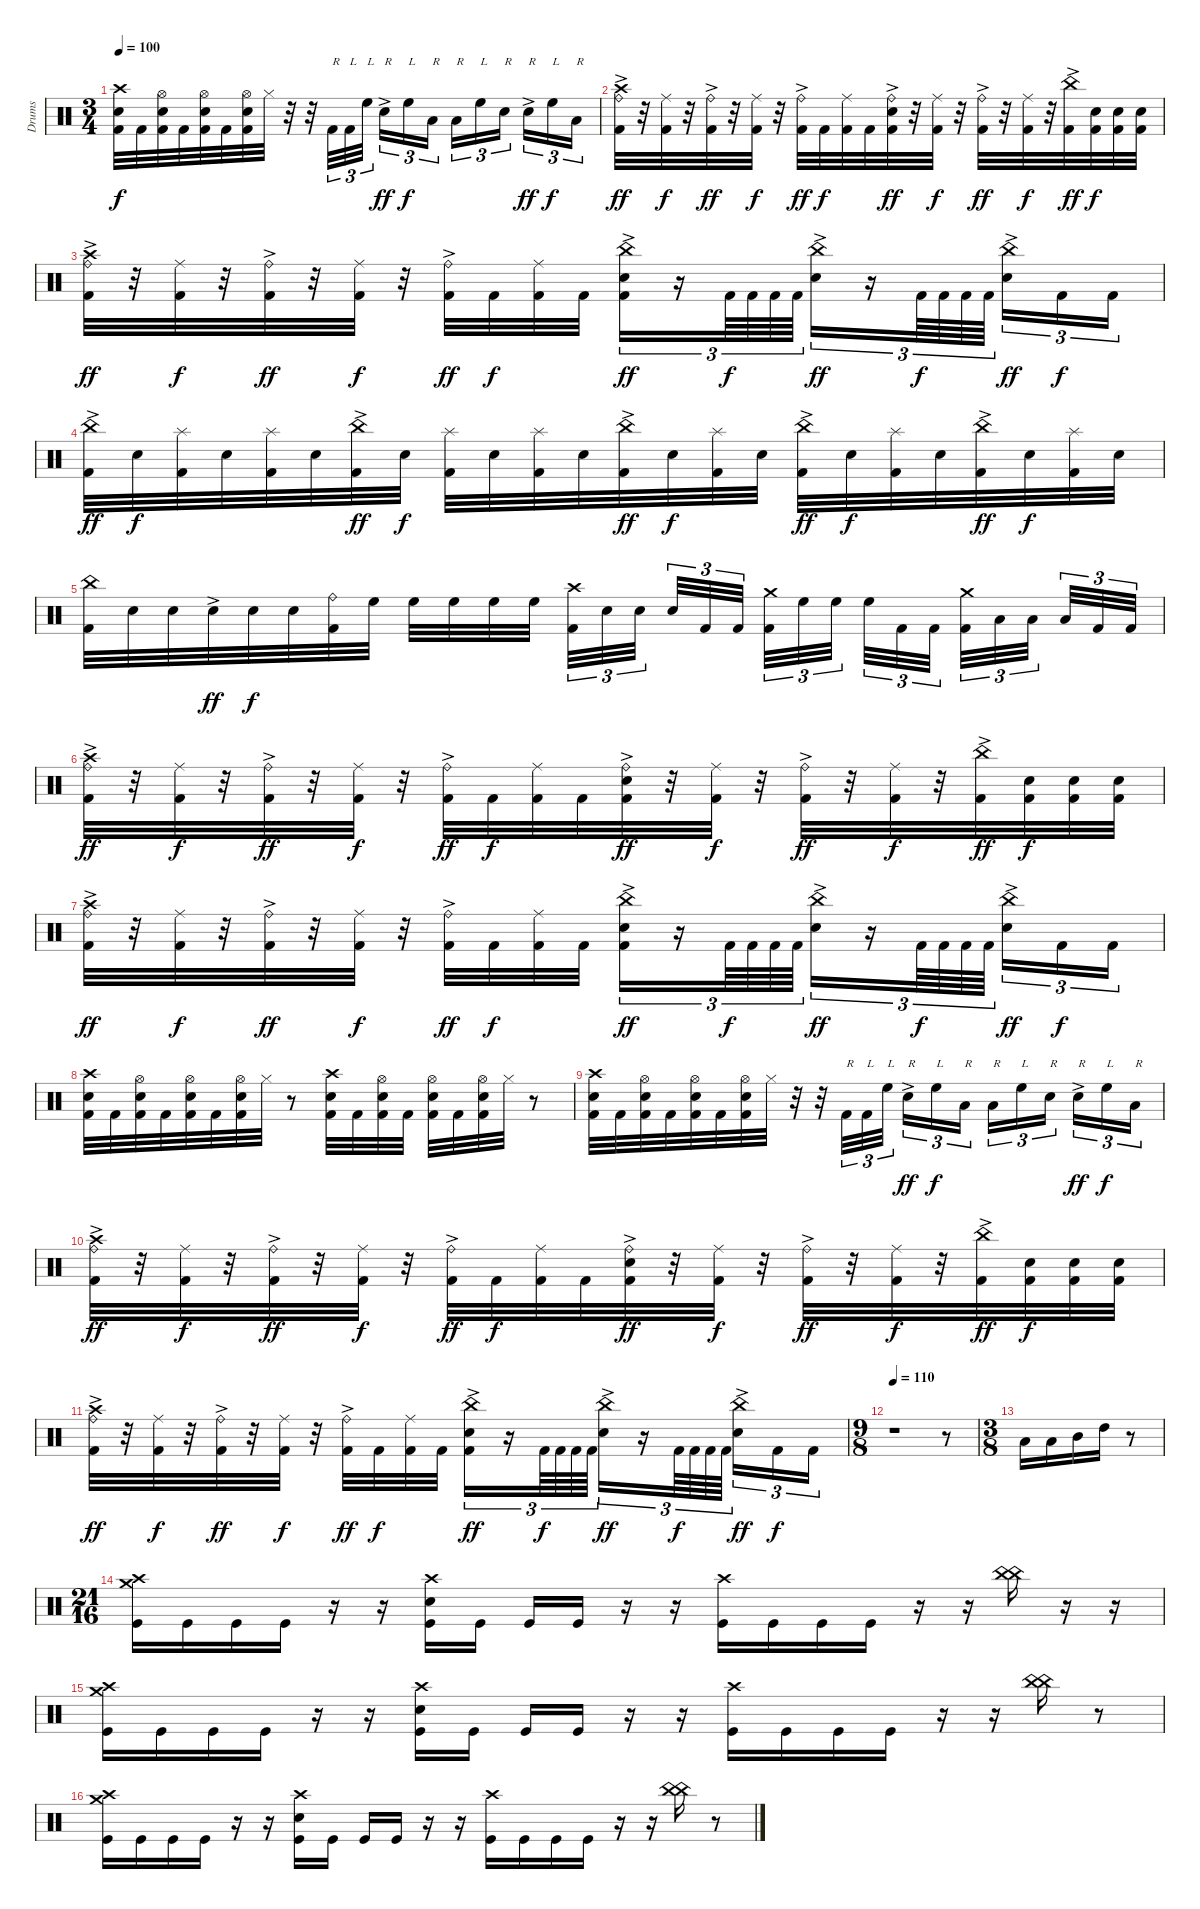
\track ("Drums" "Drums") {instrument percussion}
\staff {score}
\articulation defaults
\ts (3 4)
\tempo 100
\clef neutral
\ks c
("Crash high (hit)" "Electric Snare (hit)" "Kick (hit) 2").32{dy f} "Kick (hit) 2".32 ("Kick (hit) 2" "Electric Snare (hit)" "Hi-Hat (open)").32 "Kick (hit) 2".32 ("Hi-Hat (open)" "Electric Snare (hit)" "Kick (hit) 2").32 "Kick (hit) 2".32 ("Hi-Hat (open)" "Electric Snare (hit)" "Kick (hit) 2").32 "Hi-Hat (closed)".32 r.32 r.32 "Kick (hit) 2".32{tu (3 2) txt "R"} "Kick (hit) 2".32{tu (3 2) txt "L"} "High Floor Tom (hit)".32{tu (3 2) txt "L" beam splitsecondary} "Electric Snare (hit)"{ac}.16{tu (3 2) txt "R" dy ff} "High Floor Tom (hit)".16{tu (3 2) txt "L" dy f} "Low Tom (hit)".16{tu (3 2) txt "R"} "Low Tom (hit)".16{tu (3 2) txt "R"} "High Floor Tom (hit)".16{tu (3 2) txt "L"} "Electric Snare (hit)".16{tu (3 2) txt "R" beam splitsecondary} "Electric Snare (hit)"{ac}.16{tu (3 2) txt "R" dy ff} "High Floor Tom (hit)".16{tu (3 2) txt "L" dy f} "Low Tom (hit)".16{tu (3 2) txt "R"} |
("Ride (bell)"{ac} "Kick (hit) 2" "Crash high (hit)").32{dy ff} r.32 ("Ride (middle)" "Kick (hit) 2").32{dy f} r.32 ("Ride (bell)"{ac} "Kick (hit) 2").32{dy ff} r.32 ("Ride (middle)" "Kick (hit) 2").32{dy f} r.32 ("Ride (bell)"{ac} "Kick (hit) 2").32{dy ff} "Kick (hit) 2".32{dy f} ("Ride (middle)" "Kick (hit) 2").32 "Kick (hit) 2".32 ("Ride (bell)"{ac} "Kick (hit) 2" "Electric Snare (hit)").32{dy ff} r.32 ("Ride (middle)" "Kick (hit) 2").32{dy f} r.32 ("Ride (bell)"{ac} "Kick (hit) 2").32{dy ff} r.32 ("Ride (middle)" "Kick (hit) 2").32{dy f} r.32 ("China (hit)"{ac} "Kick (hit) 2").32{dy ff} ("Kick (hit) 2" "Electric Snare (hit)").32{dy f} ("Kick (hit) 2" "Electric Snare (hit)").32 ("Kick (hit) 2" "Electric Snare (hit)").32 |
("Ride (bell)"{ac} "Kick (hit) 2" "Crash high (hit)").32{dy ff} r.32 ("Ride (middle)" "Kick (hit) 2").32{dy f} r.32 ("Ride (bell)"{ac} "Kick (hit) 2").32{dy ff} r.32 ("Ride (middle)" "Kick (hit) 2").32{dy f} r.32 ("Ride (bell)"{ac} "Kick (hit) 2").32{dy ff} "Kick (hit) 2".32{dy f} ("Ride (middle)" "Kick (hit) 2").32 "Kick (hit) 2".32{beam splitsecondary} ("China (hit)" "Kick (hit) 2" "Electric Snare (hit)"{ac}).16{tu (3 2) dy ff} r.16{tu (3 2)} "Kick (hit) 2".64{tu (3 2) dy f} "Kick (hit) 2".64{tu (3 2)} "Kick (hit) 2".64{tu (3 2)} "Kick (hit) 2".64{tu (3 2)} ("China (hit)" "Electric Snare (hit)"{ac}).16{tu (3 2) dy ff} r.16{tu (3 2)} "Kick (hit) 2".64{tu (3 2) dy f} "Kick (hit) 2".64{tu (3 2)} "Kick (hit) 2".64{tu (3 2)} "Kick (hit) 2".64{tu (3 2) beam splitsecondary} ("China (hit)" "Electric Snare (hit)"{ac}).16{tu (3 2) dy ff} "Kick (hit) 2".16{tu (3 2) dy f} "Kick (hit) 2".16{tu (3 2)} |
("China (hit)"{ac} "Kick (hit) 2").32{dy ff} "Electric Snare (hit)".32{dy f} ("Splash (hit)" "Kick (hit) 2").32 "Electric Snare (hit)".32 ("Splash (hit)" "Kick (hit) 2").32 "Electric Snare (hit)".32 ("China (hit)"{ac} "Kick (hit) 2").32{dy ff} "Electric Snare (hit)".32{dy f} ("Splash (hit)" "Kick (hit) 2").32 "Electric Snare (hit)".32 ("Splash (hit)" "Kick (hit) 2").32 "Electric Snare (hit)".32 ("China (hit)"{ac} "Kick (hit) 2").32{dy ff} "Electric Snare (hit)".32{dy f} ("Splash (hit)" "Kick (hit) 2").32 "Electric Snare (hit)".32 ("China (hit)"{ac} "Kick (hit) 2").32{dy ff} "Electric Snare (hit)".32{dy f} ("Splash (hit)" "Kick (hit) 2").32 "Electric Snare (hit)".32 ("China (hit)"{ac} "Kick (hit) 2").32{dy ff} "Electric Snare (hit)".32{dy f} ("Splash (hit)" "Kick (hit) 2").32 "Electric Snare (hit)".32 |
("China (hit)" "Kick (hit) 2").32 "Electric Snare (hit)".32 "Electric Snare (hit)".32 "Electric Snare (hit)"{ac}.32{dy ff} "Electric Snare (hit)".32{dy f} "Electric Snare (hit)".32 ("Ride (bell)" "Kick (hit) 2").32 "High Floor Tom (hit)".32 "High Floor Tom (hit)".32 "High Floor Tom (hit)".32 "High Floor Tom (hit)".32 "High Floor Tom (hit)".32{beam splitsecondary} ("Crash high (hit)" "Kick (hit) 2").32{tu (3 2)} "Electric Snare (hit)".32{tu (3 2)} "Electric Snare (hit)".32{tu (3 2) beam splitsecondary} "Electric Snare (hit)".32{tu (3 2)} "Kick (hit) 2".32{tu (3 2)} "Kick (hit) 2".32{tu (3 2)} ("Crash medium (hit)" "Kick (hit) 2").32{tu (3 2)} "High Floor Tom (hit)".32{tu (3 2)} "High Floor Tom (hit)".32{tu (3 2) beam splitsecondary} "High Floor Tom (hit)".32{tu (3 2)} "Kick (hit) 2".32{tu (3 2)} "Kick (hit) 2".32{tu (3 2) beam splitsecondary} ("Crash medium (hit)" "Kick (hit) 2").32{tu (3 2)} "Low Tom (hit)".32{tu (3 2)} "Low Tom (hit)".32{tu (3 2) beam splitsecondary} "Low Tom (hit)".32{tu (3 2)} "Kick (hit) 2".32{tu (3 2)} "Kick (hit) 2".32{tu (3 2)} |
("Ride (bell)"{ac} "Kick (hit) 2" "Crash high (hit)").32{dy ff} r.32 ("Ride (middle)" "Kick (hit) 2").32{dy f} r.32 ("Ride (bell)"{ac} "Kick (hit) 2").32{dy ff} r.32 ("Ride (middle)" "Kick (hit) 2").32{dy f} r.32 ("Ride (bell)"{ac} "Kick (hit) 2").32{dy ff} "Kick (hit) 2".32{dy f} ("Ride (middle)" "Kick (hit) 2").32 "Kick (hit) 2".32 ("Ride (bell)"{ac} "Kick (hit) 2" "Electric Snare (hit)").32{dy ff} r.32 ("Ride (middle)" "Kick (hit) 2").32{dy f} r.32 ("Ride (bell)"{ac} "Kick (hit) 2").32{dy ff} r.32 ("Ride (middle)" "Kick (hit) 2").32{dy f} r.32 ("China (hit)"{ac} "Kick (hit) 2").32{dy ff} ("Kick (hit) 2" "Electric Snare (hit)").32{dy f} ("Kick (hit) 2" "Electric Snare (hit)").32 ("Kick (hit) 2" "Electric Snare (hit)").32 |
("Ride (bell)"{ac} "Kick (hit) 2" "Crash high (hit)").32{dy ff} r.32 ("Ride (middle)" "Kick (hit) 2").32{dy f} r.32 ("Ride (bell)"{ac} "Kick (hit) 2").32{dy ff} r.32 ("Ride (middle)" "Kick (hit) 2").32{dy f} r.32 ("Ride (bell)"{ac} "Kick (hit) 2").32{dy ff} "Kick (hit) 2".32{dy f} ("Ride (middle)" "Kick (hit) 2").32 "Kick (hit) 2".32{beam splitsecondary} ("China (hit)" "Kick (hit) 2" "Electric Snare (hit)"{ac}).16{tu (3 2) dy ff} r.16{tu (3 2)} "Kick (hit) 2".64{tu (3 2) dy f} "Kick (hit) 2".64{tu (3 2)} "Kick (hit) 2".64{tu (3 2)} "Kick (hit) 2".64{tu (3 2)} ("China (hit)" "Electric Snare (hit)"{ac}).16{tu (3 2) dy ff} r.16{tu (3 2)} "Kick (hit) 2".64{tu (3 2) dy f} "Kick (hit) 2".64{tu (3 2)} "Kick (hit) 2".64{tu (3 2)} "Kick (hit) 2".64{tu (3 2) beam splitsecondary} ("China (hit)" "Electric Snare (hit)"{ac}).16{tu (3 2) dy ff} "Kick (hit) 2".16{tu (3 2) dy f} "Kick (hit) 2".16{tu (3 2)} |
("Crash high (hit)" "Electric Snare (hit)" "Kick (hit) 2").32 "Kick (hit) 2".32 ("Kick (hit) 2" "Electric Snare (hit)" "Hi-Hat (open)").32 "Kick (hit) 2".32 ("Hi-Hat (open)" "Electric Snare (hit)" "Kick (hit) 2").32 "Kick (hit) 2".32 ("Hi-Hat (open)" "Electric Snare (hit)" "Kick (hit) 2").32 "Hi-Hat (closed)".32 r.8 ("Crash high (hit)" "Electric Snare (hit)" "Kick (hit) 2").32 "Kick (hit) 2".32 ("Kick (hit) 2" "Electric Snare (hit)" "Hi-Hat (open)").32 "Kick (hit) 2".32 ("Hi-Hat (open)" "Electric Snare (hit)" "Kick (hit) 2").32 "Kick (hit) 2".32 ("Hi-Hat (open)" "Electric Snare (hit)" "Kick (hit) 2").32 "Hi-Hat (closed)".32 r.8 |
("Crash high (hit)" "Electric Snare (hit)" "Kick (hit) 2").32 "Kick (hit) 2".32 ("Kick (hit) 2" "Electric Snare (hit)" "Hi-Hat (open)").32 "Kick (hit) 2".32 ("Hi-Hat (open)" "Electric Snare (hit)" "Kick (hit) 2").32 "Kick (hit) 2".32 ("Hi-Hat (open)" "Electric Snare (hit)" "Kick (hit) 2").32 "Hi-Hat (closed)".32 r.32 r.32 "Kick (hit) 2".32{tu (3 2) txt "R"} "Kick (hit) 2".32{tu (3 2) txt "L"} "High Floor Tom (hit)".32{tu (3 2) txt "L" beam splitsecondary} "Electric Snare (hit)"{ac}.16{tu (3 2) txt "R" dy ff} "High Floor Tom (hit)".16{tu (3 2) txt "L" dy f} "Low Tom (hit)".16{tu (3 2) txt "R"} "Low Tom (hit)".16{tu (3 2) txt "R"} "High Floor Tom (hit)".16{tu (3 2) txt "L"} "Electric Snare (hit)".16{tu (3 2) txt "R" beam splitsecondary} "Electric Snare (hit)"{ac}.16{tu (3 2) txt "R" dy ff} "High Floor Tom (hit)".16{tu (3 2) txt "L" dy f} "Low Tom (hit)".16{tu (3 2) txt "R"} |
("Ride (bell)"{ac} "Kick (hit) 2" "Crash high (hit)").32{dy ff} r.32 ("Ride (middle)" "Kick (hit) 2").32{dy f} r.32 ("Ride (bell)"{ac} "Kick (hit) 2").32{dy ff} r.32 ("Ride (middle)" "Kick (hit) 2").32{dy f} r.32 ("Ride (bell)"{ac} "Kick (hit) 2").32{dy ff} "Kick (hit) 2".32{dy f} ("Ride (middle)" "Kick (hit) 2").32 "Kick (hit) 2".32 ("Ride (bell)"{ac} "Kick (hit) 2" "Electric Snare (hit)").32{dy ff} r.32 ("Ride (middle)" "Kick (hit) 2").32{dy f} r.32 ("Ride (bell)"{ac} "Kick (hit) 2").32{dy ff} r.32 ("Ride (middle)" "Kick (hit) 2").32{dy f} r.32 ("China (hit)"{ac} "Kick (hit) 2").32{dy ff} ("Kick (hit) 2" "Electric Snare (hit)").32{dy f} ("Kick (hit) 2" "Electric Snare (hit)").32 ("Kick (hit) 2" "Electric Snare (hit)").32 |
("Ride (bell)"{ac} "Kick (hit) 2" "Crash high (hit)").32{dy ff} r.32 ("Ride (middle)" "Kick (hit) 2").32{dy f} r.32 ("Ride (bell)"{ac} "Kick (hit) 2").32{dy ff} r.32 ("Ride (middle)" "Kick (hit) 2").32{dy f} r.32 ("Ride (bell)"{ac} "Kick (hit) 2").32{dy ff} "Kick (hit) 2".32{dy f} ("Ride (middle)" "Kick (hit) 2").32 "Kick (hit) 2".32{beam splitsecondary} ("China (hit)" "Kick (hit) 2" "Electric Snare (hit)"{ac}).16{tu (3 2) dy ff} r.16{tu (3 2)} "Kick (hit) 2".64{tu (3 2) dy f} "Kick (hit) 2".64{tu (3 2)} "Kick (hit) 2".64{tu (3 2)} "Kick (hit) 2".64{tu (3 2)} ("China (hit)" "Electric Snare (hit)"{ac}).16{tu (3 2) dy ff} r.16{tu (3 2)} "Kick (hit) 2".64{tu (3 2) dy f} "Kick (hit) 2".64{tu (3 2)} "Kick (hit) 2".64{tu (3 2)} "Kick (hit) 2".64{tu (3 2) beam splitsecondary} ("China (hit)" "Electric Snare (hit)"{ac}).16{tu (3 2) dy ff} "Kick (hit) 2".16{tu (3 2) dy f} "Kick (hit) 2".16{tu (3 2)} |
\ts (9 8)
\tempo 110
r.1 r.8 |
\ts (3 8)
"Low Tom (hit)".16 "Low Tom (hit)".16 "Mid Tom (hit)".16 "High Tom (hit)".16 r.8 |
\ts (21 16)
("Crash high (hit)" "Crash medium (hit)" "Kick (hit)").16 "Kick (hit)".16 "Kick (hit)".16 "Kick (hit)".16 r.16 r.16 ("Crash high (hit)" "Electric Snare (hit)" "Kick (hit)").16 "Kick (hit)".16 "Kick (hit)".16 "Kick (hit)".16 r.16 r.16 ("Crash high (hit)" "Kick (hit)").16 "Kick (hit)".16 "Kick (hit)".16 "Kick (hit)".16 r.16 r.16 ("China (hit)" "China (hit)").16 r.16 r.16 |
("Crash high (hit)" "Crash medium (hit)" "Kick (hit)").16 "Kick (hit)".16 "Kick (hit)".16 "Kick (hit)".16 r.16 r.16 ("Crash high (hit)" "Electric Snare (hit)" "Kick (hit)").16 "Kick (hit)".16 "Kick (hit)".16 "Kick (hit)".16 r.16 r.16 ("Crash high (hit)" "Kick (hit)").16 "Kick (hit)".16 "Kick (hit)".16 "Kick (hit)".16 r.16 r.16 ("China (hit)" "China (hit)").16 r.8 |
("Crash high (hit)" "Crash medium (hit)" "Kick (hit)").16 "Kick (hit)".16 "Kick (hit)".16 "Kick (hit)".16 r.16 r.16 ("Crash high (hit)" "Electric Snare (hit)" "Kick (hit)").16 "Kick (hit)".16 "Kick (hit)".16 "Kick (hit)".16 r.16 r.16 ("Crash high (hit)" "Kick (hit)").16 "Kick (hit)".16 "Kick (hit)".16 "Kick (hit)".16 r.16 r.16 ("China (hit)" "China (hit)").16 r.8
